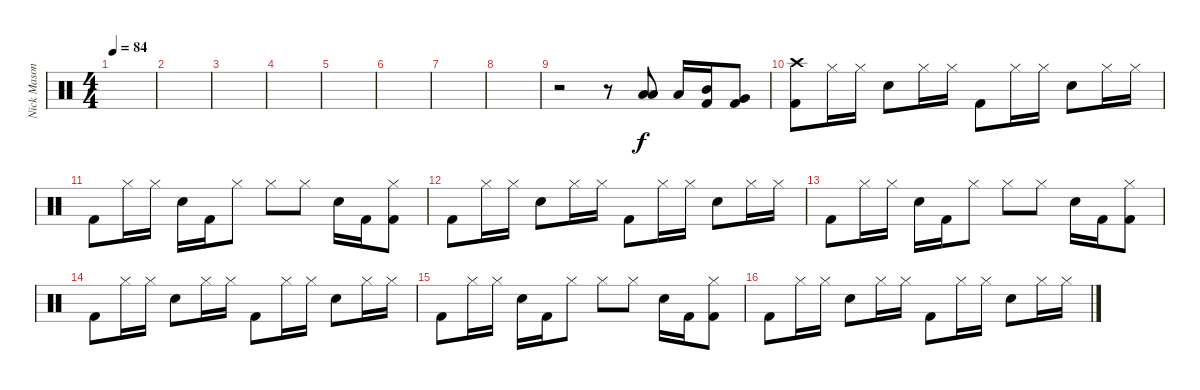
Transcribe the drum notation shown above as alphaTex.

\track ("Nick Mason" "Nick Mason") {instrument percussion}
\staff {score}
\articulation defaults
\ts (4 4)
\tempo 84
\clef neutral
\ks c
|
|
|
|
|
|
|
|
r.2{volume 10} r.8 ("Low Tom (hit)" "Low Tom (hit)").8{dy f} "Low Tom (hit)".16 ("Mid Tom (hit)" "Kick (hit) 2").16 ("Very Low Tom (hit)" "Kick (hit) 2").8 |
("Crash high (hit)" "Kick (hit) 2").8 "Hi-Hat (closed)".16 "Hi-Hat (closed)".16 "Snare (hit) 2".8 "Hi-Hat (closed)".16 "Hi-Hat (closed)".16 "Kick (hit) 2".8 "Hi-Hat (closed)".16 "Hi-Hat (closed)".16 "Snare (hit) 2".8 "Hi-Hat (closed)".16 "Hi-Hat (closed)".16 |
"Kick (hit) 2".8 "Hi-Hat (closed)".16 "Hi-Hat (closed)".16 "Snare (hit) 2".16 "Kick (hit) 2".16 "Hi-Hat (closed)".8 "Hi-Hat (closed)".8 "Hi-Hat (closed)".8 "Snare (hit) 2".16 "Kick (hit) 2".16 ("Hi-Hat (closed)" "Kick (hit) 2").8 |
"Kick (hit) 2".8 "Hi-Hat (closed)".16 "Hi-Hat (closed)".16 "Snare (hit) 2".8 "Hi-Hat (closed)".16 "Hi-Hat (closed)".16 "Kick (hit) 2".8 "Hi-Hat (closed)".16 "Hi-Hat (closed)".16 "Snare (hit) 2".8 "Hi-Hat (closed)".16 "Hi-Hat (closed)".16 |
"Kick (hit) 2".8 "Hi-Hat (closed)".16 "Hi-Hat (closed)".16 "Snare (hit) 2".16 "Kick (hit) 2".16 "Hi-Hat (closed)".8 "Hi-Hat (closed)".8 "Hi-Hat (closed)".8 "Snare (hit) 2".16 "Kick (hit) 2".16 ("Hi-Hat (closed)" "Kick (hit) 2").8 |
"Kick (hit) 2".8 "Hi-Hat (closed)".16 "Hi-Hat (closed)".16 "Snare (hit) 2".8 "Hi-Hat (closed)".16 "Hi-Hat (closed)".16 "Kick (hit) 2".8 "Hi-Hat (closed)".16 "Hi-Hat (closed)".16 "Snare (hit) 2".8 "Hi-Hat (closed)".16 "Hi-Hat (closed)".16 |
"Kick (hit) 2".8 "Hi-Hat (closed)".16 "Hi-Hat (closed)".16 "Snare (hit) 2".16 "Kick (hit) 2".16 "Hi-Hat (closed)".8 "Hi-Hat (closed)".8 "Hi-Hat (closed)".8 "Snare (hit) 2".16 "Kick (hit) 2".16 ("Hi-Hat (closed)" "Kick (hit) 2").8 |
"Kick (hit) 2".8 "Hi-Hat (closed)".16 "Hi-Hat (closed)".16 "Snare (hit) 2".8 "Hi-Hat (closed)".16 "Hi-Hat (closed)".16 "Kick (hit) 2".8 "Hi-Hat (closed)".16 "Hi-Hat (closed)".16 "Snare (hit) 2".8 "Hi-Hat (closed)".16 "Hi-Hat (closed)".16
